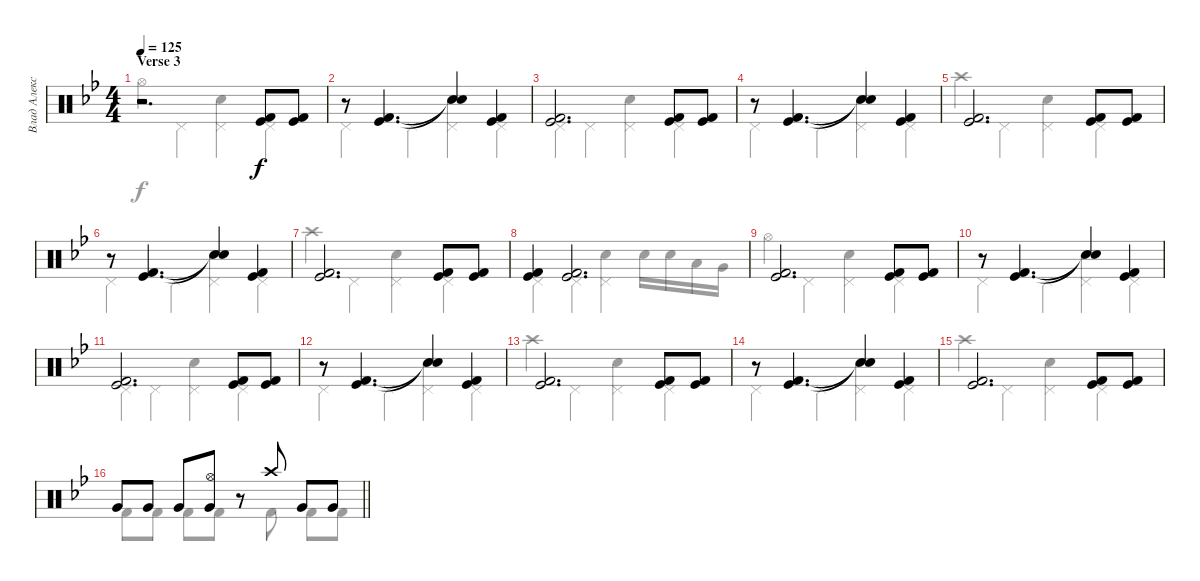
\track ("Влад Алексеенко" "Влад Алекс") {instrument percussion}
\staff {score}
\articulation defaults
\voice
\ts (4 4)
\section ("" "Verse 3")
\tempo 125
\clef neutral
\ks bb
r.2{d dy f} ("Kick (hit)" "Kick (hit) 2").8 ("Kick (hit)" "Kick (hit) 2").8 |
r.8 ("Kick (hit)" "Kick (hit) 2").4{d} ("Snare (hit)"{t} "Snare (hit)"{t}).4 ("Kick (hit)" "Kick (hit) 2").4 |
("Kick (hit)" "Kick (hit) 2").2{d} ("Kick (hit)" "Kick (hit) 2").8 ("Kick (hit)" "Kick (hit) 2").8 |
r.8 ("Kick (hit)" "Kick (hit) 2").4{d} ("Snare (hit)"{t} "Snare (hit)"{t}).4 ("Kick (hit)" "Kick (hit) 2").4 |
("Kick (hit)" "Kick (hit) 2").2{d} ("Kick (hit)" "Kick (hit) 2").8 ("Kick (hit)" "Kick (hit) 2").8 |
r.8 ("Kick (hit)" "Kick (hit) 2").4{d} ("Snare (hit)"{t} "Snare (hit)"{t}).4 ("Kick (hit)" "Kick (hit) 2").4 |
("Kick (hit)" "Kick (hit) 2").2{d} ("Kick (hit)" "Kick (hit) 2").8 ("Kick (hit)" "Kick (hit) 2").8 |
("Kick (hit)" "Kick (hit) 2").4 ("Kick (hit)" "Kick (hit) 2").2{d} |
("Kick (hit)" "Kick (hit) 2").2{d} ("Kick (hit)" "Kick (hit) 2").8 ("Kick (hit)" "Kick (hit) 2").8 |
r.8 ("Kick (hit)" "Kick (hit) 2").4{d} ("Snare (hit)"{t} "Snare (hit)"{t}).4 ("Kick (hit)" "Kick (hit) 2").4 |
("Kick (hit)" "Kick (hit) 2").2{d} ("Kick (hit)" "Kick (hit) 2").8 ("Kick (hit)" "Kick (hit) 2").8 |
r.8 ("Kick (hit)" "Kick (hit) 2").4{d} ("Snare (hit)"{t} "Snare (hit)"{t}).4 ("Kick (hit)" "Kick (hit) 2").4 |
("Kick (hit)" "Kick (hit) 2").2{d} ("Kick (hit)" "Kick (hit) 2").8 ("Kick (hit)" "Kick (hit) 2").8 |
r.8 ("Kick (hit)" "Kick (hit) 2").4{d} ("Snare (hit)"{t} "Snare (hit)"{t}).4 ("Kick (hit)" "Kick (hit) 2").4 |
("Kick (hit)" "Kick (hit) 2").2{d} ("Kick (hit)" "Kick (hit) 2").8 ("Kick (hit)" "Kick (hit) 2").8 |
\barLineRight lightlight "Very Low Tom (hit)".8 "Very Low Tom (hit)".8 "Very Low Tom (hit)".8
("Very Low Tom (hit)" "Hi-Hat (open)").8 r.8 "Crash high (hit)".8 "Very Low Tom (hit)".8 "Very Low Tom (hit)".8
\voice
\clef neutral
\ottava regular
\simile none
\ks bb "Hi-Hat (open)".4{dy f} "Pedal Hi-Hat (hit)".4
("Snare (hit) 2" "Pedal Hi-Hat (hit)").4 "Pedal Hi-Hat (hit)".4 |
"Pedal Hi-Hat (hit)".4 "Pedal Hi-Hat (hit)".4 ("Snare (hit) 2" "Pedal Hi-Hat (hit)").4 "Pedal Hi-Hat (hit)".4 |
"Pedal Hi-Hat (hit)".4 "Pedal Hi-Hat (hit)".4 ("Snare (hit) 2" "Pedal Hi-Hat (hit)").4 "Pedal Hi-Hat (hit)".4 |
"Pedal Hi-Hat (hit)".4 "Pedal Hi-Hat (hit)".4 ("Snare (hit) 2" "Pedal Hi-Hat (hit)").4 "Pedal Hi-Hat (hit)".4 |
"Crash high (hit)".4 "Pedal Hi-Hat (hit)".4 ("Snare (hit) 2" "Pedal Hi-Hat (hit)").4 "Pedal Hi-Hat (hit)".4 |
"Pedal Hi-Hat (hit)".4 "Pedal Hi-Hat (hit)".4 ("Snare (hit) 2" "Pedal Hi-Hat (hit)").4 "Pedal Hi-Hat (hit)".4 |
"Crash high (hit)".4 "Pedal Hi-Hat (hit)".4 ("Snare (hit) 2" "Pedal Hi-Hat (hit)").4 "Pedal Hi-Hat (hit)".4 |
"Pedal Hi-Hat (hit)".4 "Pedal Hi-Hat (hit)".4 ("Snare (hit) 2" "Pedal Hi-Hat (hit)").4 "Snare (hit) 2".16 "Snare (hit) 2".16 "Low Tom (hit)".16 "Very Low Tom (hit)".16 |
"Hi-Hat (open)".4 "Pedal Hi-Hat (hit)".4 ("Snare (hit) 2" "Pedal Hi-Hat (hit)").4 "Pedal Hi-Hat (hit)".4 |
"Pedal Hi-Hat (hit)".4 "Pedal Hi-Hat (hit)".4 ("Snare (hit) 2" "Pedal Hi-Hat (hit)").4 "Pedal Hi-Hat (hit)".4 |
"Pedal Hi-Hat (hit)".4 "Pedal Hi-Hat (hit)".4 ("Snare (hit) 2" "Pedal Hi-Hat (hit)").4 "Pedal Hi-Hat (hit)".4 |
"Pedal Hi-Hat (hit)".4 "Pedal Hi-Hat (hit)".4 ("Snare (hit) 2" "Pedal Hi-Hat (hit)").4 "Pedal Hi-Hat (hit)".4 |
"Crash high (hit)".4 "Pedal Hi-Hat (hit)".4 ("Snare (hit) 2" "Pedal Hi-Hat (hit)").4 "Pedal Hi-Hat (hit)".4 |
"Pedal Hi-Hat (hit)".4 "Pedal Hi-Hat (hit)".4 ("Snare (hit) 2" "Pedal Hi-Hat (hit)").4 "Pedal Hi-Hat (hit)".4 |
"Crash high (hit)".4 "Pedal Hi-Hat (hit)".4 ("Snare (hit) 2" "Pedal Hi-Hat (hit)").4 "Pedal Hi-Hat (hit)".4 |
\barLineRight lightlight "Kick (hit) 2".8 "Kick (hit) 2".8 "Kick (hit) 2".8 "Kick (hit) 2".8
r.8 "Kick (hit) 2".8 "Kick (hit) 2".8 "Kick (hit) 2".8
